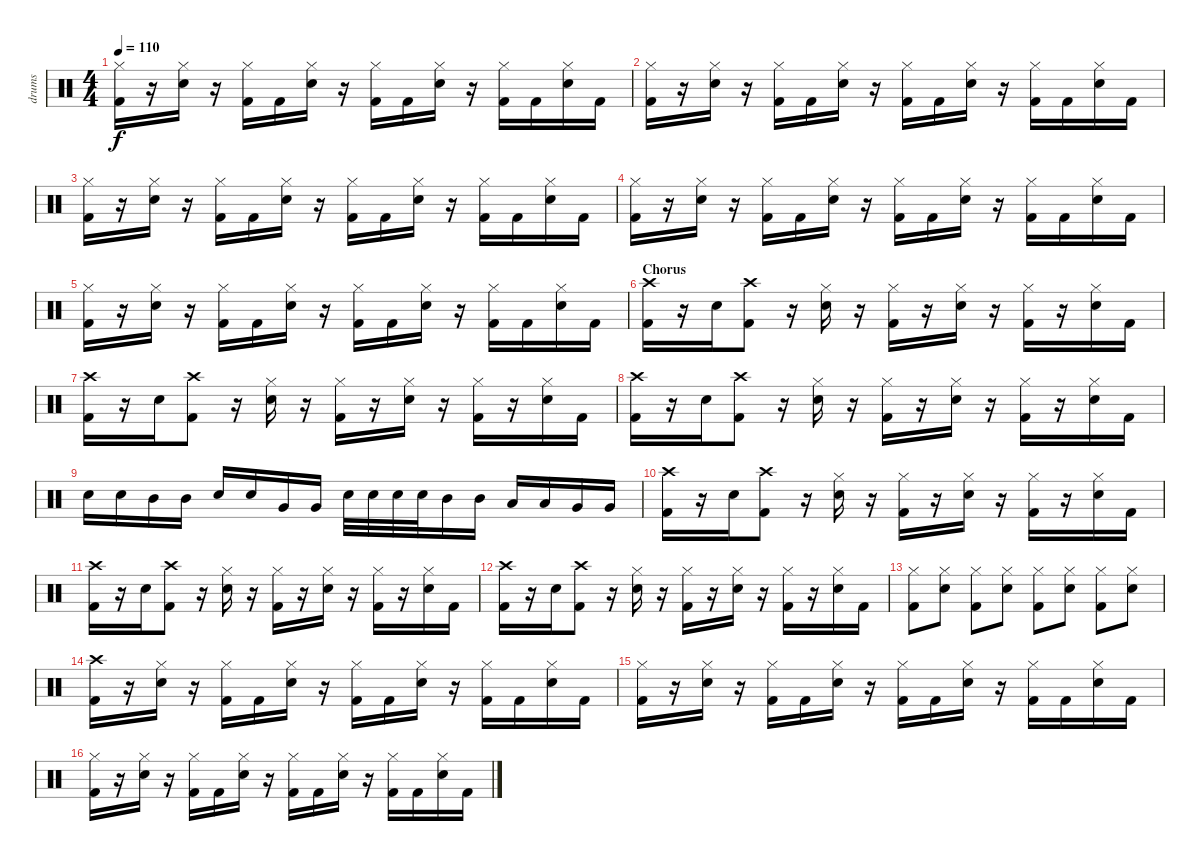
\track ("drums" "drums") {instrument percussion}
\staff {score}
\articulation defaults
\ts (4 4)
\tempo 110
\clef neutral
\ks c
("Hi-Hat (closed)" "Kick (hit) 2").16{dy f} r.16 ("Hi-Hat (closed)" "Snare (hit) 2").16 r.16 ("Hi-Hat (closed)" "Kick (hit) 2").16 "Kick (hit) 2".16 ("Hi-Hat (closed)" "Snare (hit) 2").16 r.16 ("Hi-Hat (closed)" "Kick (hit) 2").16 "Kick (hit) 2".16 ("Hi-Hat (closed)" "Snare (hit) 2").16 r.16 ("Hi-Hat (closed)" "Kick (hit) 2").16 "Kick (hit) 2".16 ("Hi-Hat (closed)" "Snare (hit) 2").16 "Kick (hit) 2".16 |
("Hi-Hat (closed)" "Kick (hit) 2").16 r.16 ("Hi-Hat (closed)" "Snare (hit) 2").16 r.16 ("Hi-Hat (closed)" "Kick (hit) 2").16 "Kick (hit) 2".16 ("Hi-Hat (closed)" "Snare (hit) 2").16 r.16 ("Hi-Hat (closed)" "Kick (hit) 2").16 "Kick (hit) 2".16 ("Hi-Hat (closed)" "Snare (hit) 2").16 r.16 ("Hi-Hat (closed)" "Kick (hit) 2").16 "Kick (hit) 2".16 ("Hi-Hat (closed)" "Snare (hit) 2").16 "Kick (hit) 2".16 |
("Hi-Hat (closed)" "Kick (hit) 2").16 r.16 ("Hi-Hat (closed)" "Snare (hit) 2").16 r.16 ("Hi-Hat (closed)" "Kick (hit) 2").16 "Kick (hit) 2".16 ("Hi-Hat (closed)" "Snare (hit) 2").16 r.16 ("Hi-Hat (closed)" "Kick (hit) 2").16 "Kick (hit) 2".16 ("Hi-Hat (closed)" "Snare (hit) 2").16 r.16 ("Hi-Hat (closed)" "Kick (hit) 2").16 "Kick (hit) 2".16 ("Hi-Hat (closed)" "Snare (hit) 2").16 "Kick (hit) 2".16 |
("Hi-Hat (closed)" "Kick (hit) 2").16 r.16 ("Hi-Hat (closed)" "Snare (hit) 2").16 r.16 ("Hi-Hat (closed)" "Kick (hit) 2").16 "Kick (hit) 2".16 ("Hi-Hat (closed)" "Snare (hit) 2").16 r.16 ("Hi-Hat (closed)" "Kick (hit) 2").16 "Kick (hit) 2".16 ("Hi-Hat (closed)" "Snare (hit) 2").16 r.16 ("Hi-Hat (closed)" "Kick (hit) 2").16 "Kick (hit) 2".16 ("Hi-Hat (closed)" "Snare (hit) 2").16 "Kick (hit) 2".16 |
("Hi-Hat (closed)" "Kick (hit) 2").16 r.16 ("Hi-Hat (closed)" "Snare (hit) 2").16 r.16 ("Hi-Hat (closed)" "Kick (hit) 2").16 "Kick (hit) 2".16 ("Hi-Hat (closed)" "Snare (hit) 2").16 r.16 ("Hi-Hat (closed)" "Kick (hit) 2").16 "Kick (hit) 2".16 ("Hi-Hat (closed)" "Snare (hit) 2").16 r.16 ("Hi-Hat (closed)" "Kick (hit) 2").16 "Kick (hit) 2".16 ("Hi-Hat (closed)" "Snare (hit) 2").16 "Kick (hit) 2".16 |
\section ("" "Chorus")
("Crash high (hit)" "Kick (hit) 2").16 r.16 "Snare (hit) 2".16 ("Crash high (hit)" "Kick (hit) 2").8 r.16 ("Hi-Hat (closed)" "Snare (hit) 2").16 r.16 ("Hi-Hat (closed)" "Kick (hit) 2").16 r.16 ("Hi-Hat (closed)" "Snare (hit) 2").16 r.16 ("Hi-Hat (closed)" "Kick (hit) 2").16 r.16 ("Hi-Hat (closed)" "Snare (hit) 2").16 "Kick (hit) 2".16 |
("Crash high (hit)" "Kick (hit) 2").16 r.16 "Snare (hit) 2".16 ("Crash high (hit)" "Kick (hit) 2").8 r.16 ("Hi-Hat (closed)" "Snare (hit) 2").16 r.16 ("Hi-Hat (closed)" "Kick (hit) 2").16 r.16 ("Hi-Hat (closed)" "Snare (hit) 2").16 r.16 ("Hi-Hat (closed)" "Kick (hit) 2").16 r.16 ("Hi-Hat (closed)" "Snare (hit) 2").16 "Kick (hit) 2".16 |
("Crash high (hit)" "Kick (hit) 2").16 r.16 "Snare (hit) 2".16 ("Crash high (hit)" "Kick (hit) 2").8 r.16 ("Hi-Hat (closed)" "Snare (hit) 2").16 r.16 ("Hi-Hat (closed)" "Kick (hit) 2").16 r.16 ("Hi-Hat (closed)" "Snare (hit) 2").16 r.16 ("Hi-Hat (closed)" "Kick (hit) 2").16 r.16 ("Hi-Hat (closed)" "Snare (hit) 2").16 "Kick (hit) 2".16 |
"Snare (hit) 2".16 "Snare (hit) 2".16 "Mid Tom (hit)".16 "Mid Tom (hit)".16 "Snare (hit) 2".16 "Snare (hit) 2".16 "Very Low Tom (hit)".16 "Very Low Tom (hit)".16 "Snare (hit) 2".32 "Snare (hit) 2".32 "Snare (hit) 2".32 "Snare (hit) 2".32 "Mid Tom (hit)".16 "Mid Tom (hit)".16 "Low Tom (hit)".16 "Low Tom (hit)".16 "Very Low Tom (hit)".16 "Very Low Tom (hit)".16 |
("Crash high (hit)" "Kick (hit) 2").16 r.16 "Snare (hit) 2".16 ("Crash high (hit)" "Kick (hit) 2").8 r.16 ("Hi-Hat (closed)" "Snare (hit) 2").16 r.16 ("Hi-Hat (closed)" "Kick (hit) 2").16 r.16 ("Hi-Hat (closed)" "Snare (hit) 2").16 r.16 ("Hi-Hat (closed)" "Kick (hit) 2").16 r.16 ("Hi-Hat (closed)" "Snare (hit) 2").16 "Kick (hit) 2".16 |
("Crash high (hit)" "Kick (hit) 2").16 r.16 "Snare (hit) 2".16 ("Crash high (hit)" "Kick (hit) 2").8 r.16 ("Hi-Hat (closed)" "Snare (hit) 2").16 r.16 ("Hi-Hat (closed)" "Kick (hit) 2").16 r.16 ("Hi-Hat (closed)" "Snare (hit) 2").16 r.16 ("Hi-Hat (closed)" "Kick (hit) 2").16 r.16 ("Hi-Hat (closed)" "Snare (hit) 2").16 "Kick (hit) 2".16 |
("Crash high (hit)" "Kick (hit) 2").16 r.16 "Snare (hit) 2".16 ("Crash high (hit)" "Kick (hit) 2").8 r.16 ("Hi-Hat (closed)" "Snare (hit) 2").16 r.16 ("Hi-Hat (closed)" "Kick (hit) 2").16 r.16 ("Hi-Hat (closed)" "Snare (hit) 2").16 r.16 ("Hi-Hat (closed)" "Kick (hit) 2").16 r.16 ("Hi-Hat (closed)" "Snare (hit) 2").16 "Kick (hit) 2".16 |
("Hi-Hat (closed)" "Kick (hit) 2").8 ("Hi-Hat (closed)" "Snare (hit) 2").8 ("Hi-Hat (closed)" "Kick (hit) 2").8 ("Hi-Hat (closed)" "Snare (hit) 2").8 ("Hi-Hat (closed)" "Kick (hit) 2").8 ("Hi-Hat (closed)" "Snare (hit) 2").8 ("Hi-Hat (closed)" "Kick (hit) 2").8 ("Hi-Hat (closed)" "Snare (hit) 2").8 |
("Crash high (hit)" "Kick (hit) 2").16 r.16 ("Hi-Hat (closed)" "Snare (hit) 2").16 r.16 ("Hi-Hat (closed)" "Kick (hit) 2").16 "Kick (hit) 2".16 ("Hi-Hat (closed)" "Snare (hit) 2").16 r.16 ("Hi-Hat (closed)" "Kick (hit) 2").16 "Kick (hit) 2".16 ("Hi-Hat (closed)" "Snare (hit) 2").16 r.16 ("Hi-Hat (closed)" "Kick (hit) 2").16 "Kick (hit) 2".16 ("Hi-Hat (closed)" "Snare (hit) 2").16 "Kick (hit) 2".16 |
("Hi-Hat (closed)" "Kick (hit) 2").16 r.16 ("Hi-Hat (closed)" "Snare (hit) 2").16 r.16 ("Hi-Hat (closed)" "Kick (hit) 2").16 "Kick (hit) 2".16 ("Hi-Hat (closed)" "Snare (hit) 2").16 r.16 ("Hi-Hat (closed)" "Kick (hit) 2").16 "Kick (hit) 2".16 ("Hi-Hat (closed)" "Snare (hit) 2").16 r.16 ("Hi-Hat (closed)" "Kick (hit) 2").16 "Kick (hit) 2".16 ("Hi-Hat (closed)" "Snare (hit) 2").16 "Kick (hit) 2".16 |
("Hi-Hat (closed)" "Kick (hit) 2").16 r.16 ("Hi-Hat (closed)" "Snare (hit) 2").16 r.16 ("Hi-Hat (closed)" "Kick (hit) 2").16 "Kick (hit) 2".16 ("Hi-Hat (closed)" "Snare (hit) 2").16 r.16 ("Hi-Hat (closed)" "Kick (hit) 2").16 "Kick (hit) 2".16 ("Hi-Hat (closed)" "Snare (hit) 2").16 r.16 ("Hi-Hat (closed)" "Kick (hit) 2").16 "Kick (hit) 2".16 ("Hi-Hat (closed)" "Snare (hit) 2").16 "Kick (hit) 2".16
